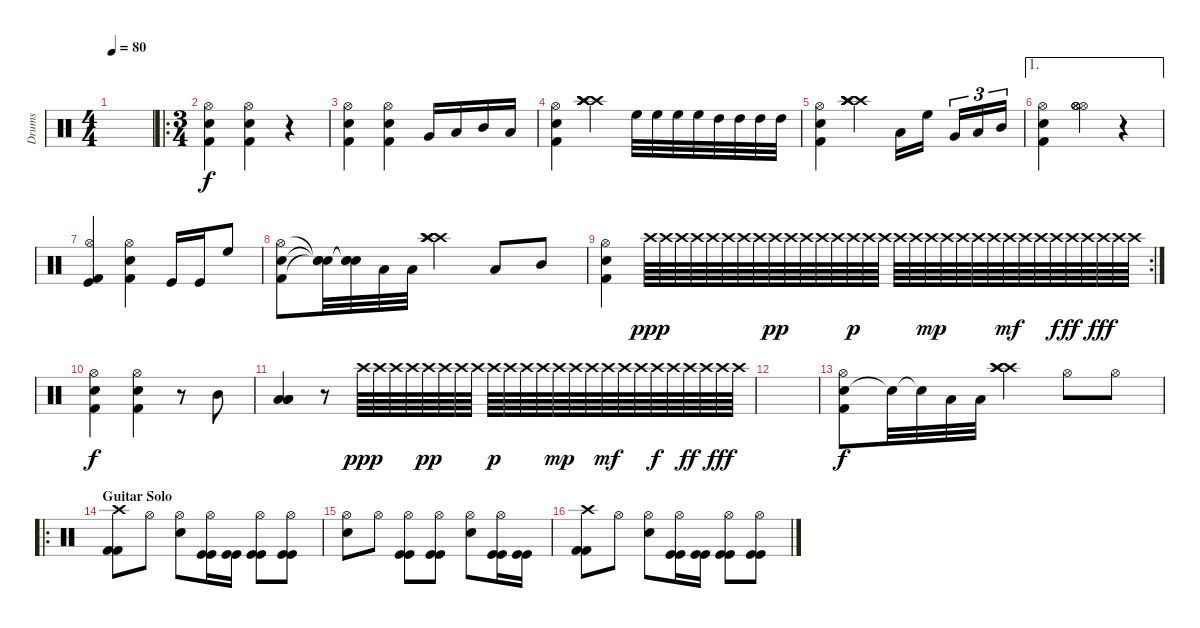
\track ("Drums" "Drums") {instrument percussion}
\staff {score}
\articulation defaults
\ts (4 4)
\tempo 80
\clef neutral
\ks c
|
\ro
\ts (3 4)
("Electric Snare (hit)" "Kick (hit) 2" "Hi-Hat (open)").4 ("Electric Snare (hit)" "Kick (hit) 2" "Hi-Hat (open)").4 r.4 |
("Electric Snare (hit)" "Kick (hit) 2" "Hi-Hat (open)").4 ("Electric Snare (hit)" "Kick (hit) 2" "Hi-Hat (open)").4 "Very Low Tom (hit)".16 "Low Tom (hit)".16 "Mid Tom (hit)".16 "Low Floor Tom (hit)".16 |
("Electric Snare (hit)" "Kick (hit) 2" "Hi-Hat (open)").4 ("Crash high (hit)" "Crash high (hit)" "Crash high (hit)" "Crash high (hit)").4 "High Floor Tom (hit)".32 "High Floor Tom (hit)".32 "High Floor Tom (hit)".32 "High Floor Tom (hit)".32 "High Tom (hit)".32 "High Tom (hit)".32 "High Tom (hit)".32 "High Tom (hit)".32 |
("Electric Snare (hit)" "Kick (hit) 2" "Hi-Hat (open)").4 ("Crash high (hit)" "Crash high (hit)" "Crash high (hit)" "Crash high (hit)").4 "Low Floor Tom (hit)".16 "High Floor Tom (hit)".16 "Very Low Tom (hit)".16{tu (3 2)} "Low Tom (hit)".16{tu (3 2)} "Mid Tom (hit)".16{tu (3 2)} |
\ae 1
("Electric Snare (hit)" "Kick (hit) 2" "Hi-Hat (open)").4 ("Hi-Hat (open)" "Hi-Hat (open)" "Hi-Hat (open)" "Hi-Hat (open)").4 r.4 |
("Kick (hit)" "Kick (hit) 2" "Hi-Hat (open)").4 ("Electric Snare (hit)" "Kick (hit) 2" "Hi-Hat (open)").4 "Kick (hit)".16 "Kick (hit)".16 "High Floor Tom (hit)".8 |
("Electric Snare (hit)" "Kick (hit) 2" "Hi-Hat (open)").8 ("Snare (hit)"{t} "Snare (hit)"{t} "Snare (hit)"{t}).32 ("Snare (hit)"{t} "Snare (hit)"{t} "Snare (hit)"{t}).32 "Low Tom (hit)".32 "Low Tom (hit)".32 ("Crash high (hit)" "Crash high (hit)" "Crash high (hit)" "Crash high (hit)").4 "Low Floor Tom (hit)".8 "Mid Tom (hit)".8 |
\rc 2
("Electric Snare (hit)" "Kick (hit) 2" "Hi-Hat (open)").4 "Crash high (hit)".64{dy ppp} "Crash high (hit)".64 "Crash high (hit)".64 "Crash high (hit)".64 "Crash high (hit)".64 "Crash high (hit)".64 "Crash high (hit)".64 "Crash high (hit)".64 "Crash high (hit)".64{dy pp} "Crash high (hit)".64 "Crash high (hit)".64 "Crash high (hit)".64 "Crash high (hit)".64 "Crash high (hit)".64{dy p} "Crash high (hit)".64 "Crash high (hit)".64 "Crash high (hit)".64 "Crash high (hit)".64 "Crash high (hit)".64{dy mp} "Crash high (hit)".64 "Crash high (hit)".64 "Crash high (hit)".64 "Crash high (hit)".64 "Crash high (hit)".64{dy mf} "Crash high (hit)".64 "Crash high (hit)".64 "Crash high (hit)".64{dy f} "Crash high (hit)".64{dy ff} "Crash high (hit)".64 "Crash high (hit)".64{dy fff} "Crash high (hit)".64 "Crash high (hit)".64 |
("Electric Snare (hit)" "Kick (hit) 2" "Hi-Hat (open)").4{dy f} ("Electric Snare (hit)" "Kick (hit) 2" "Hi-Hat (open)").4 r.8 "Mid Tom (hit)".8 |
("Low Tom (hit)" "Low Tom (hit)" "Low Tom (hit)").4 r.8 "Crash high (hit)".64{dy ppp} "Crash high (hit)".64 "Crash high (hit)".64 "Crash high (hit)".64 "Crash high (hit)".64{dy pp} "Crash high (hit)".64 "Crash high (hit)".64 "Crash high (hit)".64 "Crash high (hit)".64{dy p} "Crash high (hit)".64 "Crash high (hit)".64 "Crash high (hit)".64 "Crash high (hit)".64{dy mp} "Crash high (hit)".64 "Crash high (hit)".64 "Crash high (hit)".64{dy mf} "Crash high (hit)".64 "Crash high (hit)".64 "Crash high (hit)".64{dy f} "Crash high (hit)".64 "Crash high (hit)".64{dy ff} "Crash high (hit)".64 "Crash high (hit)".64{dy fff} "Crash high (hit)".64 |
|
("Electric Snare (hit)" "Kick (hit) 2" "Hi-Hat (open)").8{dy f} "Snare (hit)"{t}.32 "Snare (hit)"{t}.32 "Low Tom (hit)".32 "Low Tom (hit)".32 ("Crash high (hit)" "Crash high (hit)" "Crash high (hit)" "Crash high (hit)").4 "Hi-Hat (open)".8 "Hi-Hat (open)".8 |
\ro
\section ("" "Guitar Solo")
("Crash high (hit)" "Kick (hit) 2" "Kick (hit) 2").8 "Hi-Hat (open)".8 ("Hi-Hat (open)" "Electric Snare (hit)").8 ("Hi-Hat (open)" "Kick (hit)" "Kick (hit)").16 ("Kick (hit)" "Kick (hit)").16 ("Hi-Hat (open)" "Kick (hit)" "Kick (hit)").8 ("Hi-Hat (open)" "Kick (hit)" "Kick (hit)").8 |
("Hi-Hat (open)" "Electric Snare (hit)").8 "Hi-Hat (open)".8 ("Hi-Hat (open)" "Kick (hit)" "Kick (hit)").8 ("Hi-Hat (open)" "Kick (hit)" "Kick (hit)").8 ("Hi-Hat (open)" "Electric Snare (hit)").8 ("Hi-Hat (open)" "Kick (hit)" "Kick (hit)").16 ("Kick (hit)" "Kick (hit)").16 |
("Crash high (hit)" "Kick (hit) 2" "Kick (hit) 2").8 "Hi-Hat (open)".8 ("Hi-Hat (open)" "Electric Snare (hit)").8 ("Hi-Hat (open)" "Kick (hit)" "Kick (hit)").16 ("Kick (hit)" "Kick (hit)").16 ("Hi-Hat (open)" "Kick (hit)" "Kick (hit)").8 ("Hi-Hat (open)" "Kick (hit)" "Kick (hit)").8
